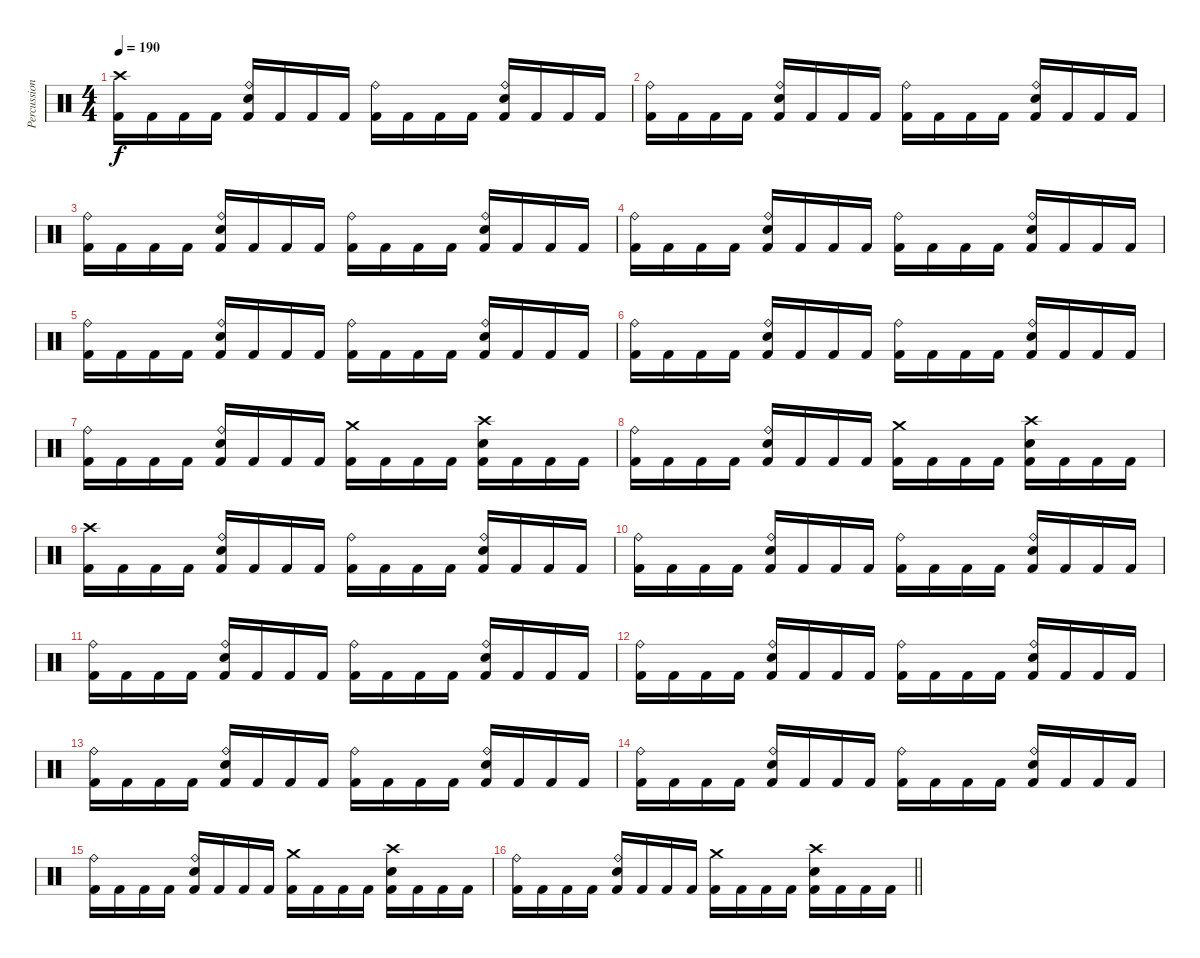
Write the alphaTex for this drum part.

\track ("Percussion" "Percussion") {instrument percussion}
\staff {score}
\articulation defaults
\ts (4 4)
\tempo 190
\clef neutral
\ks c
("Crash high (hit)" "Kick (hit) 2").16{dy f} "Kick (hit) 2".16 "Kick (hit) 2".16 "Kick (hit) 2".16 ("Ride (bell)" "Electric Snare (hit)" "Kick (hit) 2").16 "Kick (hit) 2".16 "Kick (hit) 2".16 "Kick (hit) 2".16 ("Ride (bell)" "Kick (hit) 2").16 "Kick (hit) 2".16 "Kick (hit) 2".16 "Kick (hit) 2".16 ("Ride (bell)" "Electric Snare (hit)" "Kick (hit) 2").16 "Kick (hit) 2".16 "Kick (hit) 2".16 "Kick (hit) 2".16 |
("Ride (bell)" "Kick (hit) 2").16 "Kick (hit) 2".16 "Kick (hit) 2".16 "Kick (hit) 2".16 ("Ride (bell)" "Electric Snare (hit)" "Kick (hit) 2").16 "Kick (hit) 2".16 "Kick (hit) 2".16 "Kick (hit) 2".16 ("Ride (bell)" "Kick (hit) 2").16 "Kick (hit) 2".16 "Kick (hit) 2".16 "Kick (hit) 2".16 ("Ride (bell)" "Electric Snare (hit)" "Kick (hit) 2").16 "Kick (hit) 2".16 "Kick (hit) 2".16 "Kick (hit) 2".16 |
("Ride (bell)" "Kick (hit) 2").16 "Kick (hit) 2".16 "Kick (hit) 2".16 "Kick (hit) 2".16 ("Ride (bell)" "Electric Snare (hit)" "Kick (hit) 2").16 "Kick (hit) 2".16 "Kick (hit) 2".16 "Kick (hit) 2".16 ("Ride (bell)" "Kick (hit) 2").16 "Kick (hit) 2".16 "Kick (hit) 2".16 "Kick (hit) 2".16 ("Ride (bell)" "Electric Snare (hit)" "Kick (hit) 2").16 "Kick (hit) 2".16 "Kick (hit) 2".16 "Kick (hit) 2".16 |
("Ride (bell)" "Kick (hit) 2").16 "Kick (hit) 2".16 "Kick (hit) 2".16 "Kick (hit) 2".16 ("Ride (bell)" "Electric Snare (hit)" "Kick (hit) 2").16 "Kick (hit) 2".16 "Kick (hit) 2".16 "Kick (hit) 2".16 ("Ride (bell)" "Kick (hit) 2").16 "Kick (hit) 2".16 "Kick (hit) 2".16 "Kick (hit) 2".16 ("Ride (bell)" "Electric Snare (hit)" "Kick (hit) 2").16 "Kick (hit) 2".16 "Kick (hit) 2".16 "Kick (hit) 2".16 |
("Ride (bell)" "Kick (hit) 2").16 "Kick (hit) 2".16 "Kick (hit) 2".16 "Kick (hit) 2".16 ("Ride (bell)" "Electric Snare (hit)" "Kick (hit) 2").16 "Kick (hit) 2".16 "Kick (hit) 2".16 "Kick (hit) 2".16 ("Ride (bell)" "Kick (hit) 2").16 "Kick (hit) 2".16 "Kick (hit) 2".16 "Kick (hit) 2".16 ("Ride (bell)" "Electric Snare (hit)" "Kick (hit) 2").16 "Kick (hit) 2".16 "Kick (hit) 2".16 "Kick (hit) 2".16 |
("Ride (bell)" "Kick (hit) 2").16 "Kick (hit) 2".16 "Kick (hit) 2".16 "Kick (hit) 2".16 ("Ride (bell)" "Electric Snare (hit)" "Kick (hit) 2").16 "Kick (hit) 2".16 "Kick (hit) 2".16 "Kick (hit) 2".16 ("Ride (bell)" "Kick (hit) 2").16 "Kick (hit) 2".16 "Kick (hit) 2".16 "Kick (hit) 2".16 ("Ride (bell)" "Electric Snare (hit)" "Kick (hit) 2").16 "Kick (hit) 2".16 "Kick (hit) 2".16 "Kick (hit) 2".16 |
("Ride (bell)" "Kick (hit) 2").16 "Kick (hit) 2".16 "Kick (hit) 2".16 "Kick (hit) 2".16 ("Ride (bell)" "Electric Snare (hit)" "Kick (hit) 2").16 "Kick (hit) 2".16 "Kick (hit) 2".16 "Kick (hit) 2".16 ("Crash medium (hit)" "Kick (hit) 2").16 "Kick (hit) 2".16 "Kick (hit) 2".16 "Kick (hit) 2".16 ("Crash high (hit)" "Electric Snare (hit)" "Kick (hit) 2").16 "Kick (hit) 2".16 "Kick (hit) 2".16 "Kick (hit) 2".16 |
("Ride (bell)" "Kick (hit) 2").16 "Kick (hit) 2".16 "Kick (hit) 2".16 "Kick (hit) 2".16 ("Ride (bell)" "Electric Snare (hit)" "Kick (hit) 2").16 "Kick (hit) 2".16 "Kick (hit) 2".16 "Kick (hit) 2".16 ("Crash medium (hit)" "Kick (hit) 2").16 "Kick (hit) 2".16 "Kick (hit) 2".16 "Kick (hit) 2".16 ("Crash high (hit)" "Electric Snare (hit)" "Kick (hit) 2").16 "Kick (hit) 2".16 "Kick (hit) 2".16 "Kick (hit) 2".16 |
("Crash high (hit)" "Kick (hit) 2").16 "Kick (hit) 2".16 "Kick (hit) 2".16 "Kick (hit) 2".16 ("Ride (bell)" "Electric Snare (hit)" "Kick (hit) 2").16 "Kick (hit) 2".16 "Kick (hit) 2".16 "Kick (hit) 2".16 ("Ride (bell)" "Kick (hit) 2").16 "Kick (hit) 2".16 "Kick (hit) 2".16 "Kick (hit) 2".16 ("Ride (bell)" "Electric Snare (hit)" "Kick (hit) 2").16 "Kick (hit) 2".16 "Kick (hit) 2".16 "Kick (hit) 2".16 |
("Ride (bell)" "Kick (hit) 2").16 "Kick (hit) 2".16 "Kick (hit) 2".16 "Kick (hit) 2".16 ("Ride (bell)" "Electric Snare (hit)" "Kick (hit) 2").16 "Kick (hit) 2".16 "Kick (hit) 2".16 "Kick (hit) 2".16 ("Ride (bell)" "Kick (hit) 2").16 "Kick (hit) 2".16 "Kick (hit) 2".16 "Kick (hit) 2".16 ("Ride (bell)" "Electric Snare (hit)" "Kick (hit) 2").16 "Kick (hit) 2".16 "Kick (hit) 2".16 "Kick (hit) 2".16 |
("Ride (bell)" "Kick (hit) 2").16 "Kick (hit) 2".16 "Kick (hit) 2".16 "Kick (hit) 2".16 ("Ride (bell)" "Electric Snare (hit)" "Kick (hit) 2").16 "Kick (hit) 2".16 "Kick (hit) 2".16 "Kick (hit) 2".16 ("Ride (bell)" "Kick (hit) 2").16 "Kick (hit) 2".16 "Kick (hit) 2".16 "Kick (hit) 2".16 ("Ride (bell)" "Electric Snare (hit)" "Kick (hit) 2").16 "Kick (hit) 2".16 "Kick (hit) 2".16 "Kick (hit) 2".16 |
("Ride (bell)" "Kick (hit) 2").16 "Kick (hit) 2".16 "Kick (hit) 2".16 "Kick (hit) 2".16 ("Ride (bell)" "Electric Snare (hit)" "Kick (hit) 2").16 "Kick (hit) 2".16 "Kick (hit) 2".16 "Kick (hit) 2".16 ("Ride (bell)" "Kick (hit) 2").16 "Kick (hit) 2".16 "Kick (hit) 2".16 "Kick (hit) 2".16 ("Ride (bell)" "Electric Snare (hit)" "Kick (hit) 2").16 "Kick (hit) 2".16 "Kick (hit) 2".16 "Kick (hit) 2".16 |
("Ride (bell)" "Kick (hit) 2").16 "Kick (hit) 2".16 "Kick (hit) 2".16 "Kick (hit) 2".16 ("Ride (bell)" "Electric Snare (hit)" "Kick (hit) 2").16 "Kick (hit) 2".16 "Kick (hit) 2".16 "Kick (hit) 2".16 ("Ride (bell)" "Kick (hit) 2").16 "Kick (hit) 2".16 "Kick (hit) 2".16 "Kick (hit) 2".16 ("Ride (bell)" "Electric Snare (hit)" "Kick (hit) 2").16 "Kick (hit) 2".16 "Kick (hit) 2".16 "Kick (hit) 2".16 |
("Ride (bell)" "Kick (hit) 2").16 "Kick (hit) 2".16 "Kick (hit) 2".16 "Kick (hit) 2".16 ("Ride (bell)" "Electric Snare (hit)" "Kick (hit) 2").16 "Kick (hit) 2".16 "Kick (hit) 2".16 "Kick (hit) 2".16 ("Ride (bell)" "Kick (hit) 2").16 "Kick (hit) 2".16 "Kick (hit) 2".16 "Kick (hit) 2".16 ("Ride (bell)" "Electric Snare (hit)" "Kick (hit) 2").16 "Kick (hit) 2".16 "Kick (hit) 2".16 "Kick (hit) 2".16 |
("Ride (bell)" "Kick (hit) 2").16 "Kick (hit) 2".16 "Kick (hit) 2".16 "Kick (hit) 2".16 ("Ride (bell)" "Electric Snare (hit)" "Kick (hit) 2").16 "Kick (hit) 2".16 "Kick (hit) 2".16 "Kick (hit) 2".16 ("Crash medium (hit)" "Kick (hit) 2").16 "Kick (hit) 2".16 "Kick (hit) 2".16 "Kick (hit) 2".16 ("Crash high (hit)" "Electric Snare (hit)" "Kick (hit) 2").16 "Kick (hit) 2".16 "Kick (hit) 2".16 "Kick (hit) 2".16 |
\barLineRight lightlight
("Ride (bell)" "Kick (hit) 2").16 "Kick (hit) 2".16 "Kick (hit) 2".16 "Kick (hit) 2".16 ("Ride (bell)" "Electric Snare (hit)" "Kick (hit) 2").16 "Kick (hit) 2".16 "Kick (hit) 2".16 "Kick (hit) 2".16 ("Crash medium (hit)" "Kick (hit) 2").16 "Kick (hit) 2".16 "Kick (hit) 2".16 "Kick (hit) 2".16 ("Crash high (hit)" "Electric Snare (hit)" "Kick (hit) 2").16 "Kick (hit) 2".16 "Kick (hit) 2".16 "Kick (hit) 2".16
